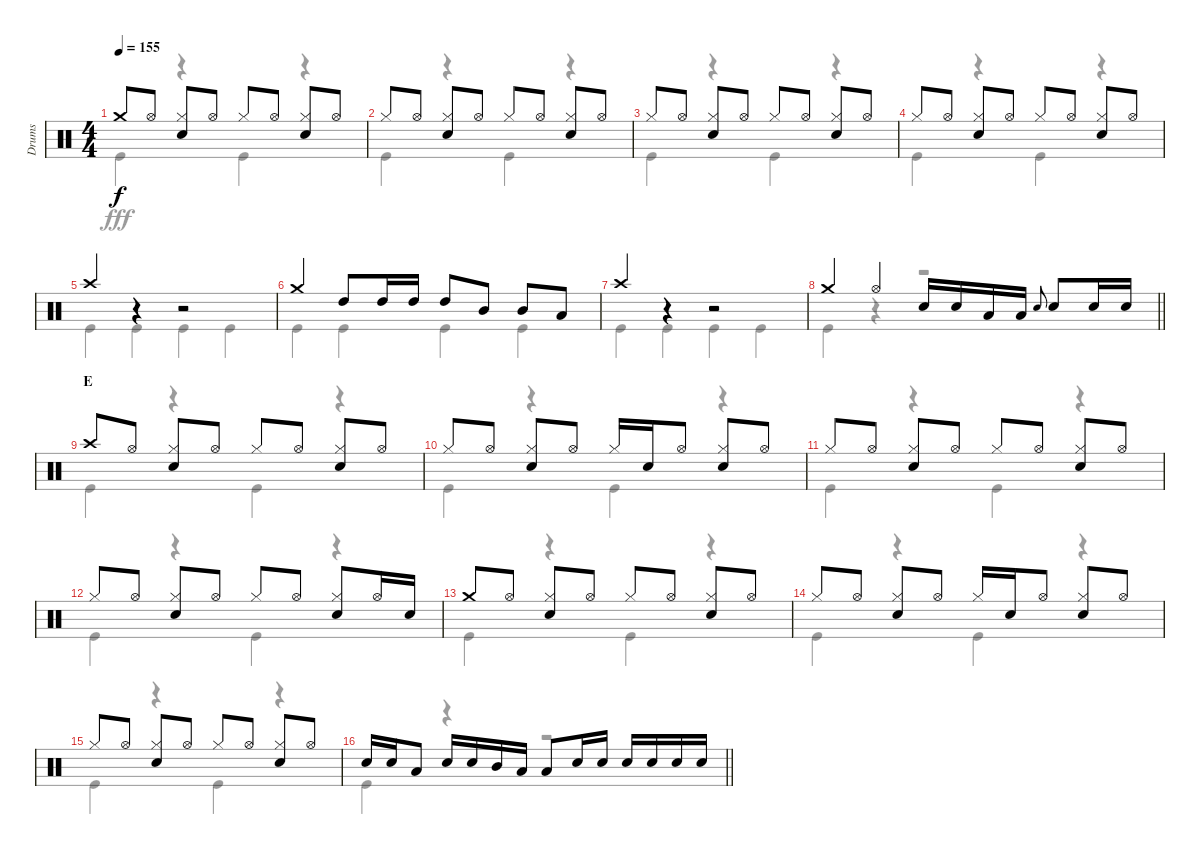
\track ("Drums" "Drums") {instrument percussion}
\staff {score}
\articulation defaults
\voice
\ts (4 4)
\tempo 155
\clef neutral
\ks c "Crash medium (hit)".8{dy f} "Hi-Hat (open)".8
("Hi-Hat (closed)" "Snare (hit) 2").8 "Hi-Hat (open)".8 "Hi-Hat (closed)".8 "Hi-Hat (open)".8 ("Hi-Hat (closed)" "Snare (hit) 2").8 "Hi-Hat (open)".8 |
"Hi-Hat (closed)".8 "Hi-Hat (open)".8 ("Hi-Hat (closed)" "Snare (hit) 2").8 "Hi-Hat (open)".8 "Hi-Hat (closed)".8 "Hi-Hat (open)".8 ("Hi-Hat (closed)" "Snare (hit) 2").8 "Hi-Hat (open)".8 |
"Hi-Hat (closed)".8 "Hi-Hat (open)".8 ("Hi-Hat (closed)" "Snare (hit) 2").8 "Hi-Hat (open)".8 "Hi-Hat (closed)".8 "Hi-Hat (open)".8 ("Hi-Hat (closed)" "Snare (hit) 2").8 "Hi-Hat (open)".8 |
"Hi-Hat (closed)".8 "Hi-Hat (open)".8 ("Hi-Hat (closed)" "Snare (hit) 2").8 "Hi-Hat (open)".8 "Hi-Hat (closed)".8 "Hi-Hat (open)".8 ("Hi-Hat (closed)" "Snare (hit) 2").8 "Hi-Hat (open)".8 |
"Crash high (hit)".4 r.4 r.2 |
"Crash medium (hit)".4 "High Tom (hit)".8 "High Tom (hit)".16 "High Tom (hit)".16 "High Tom (hit)".8 "Mid Tom (hit)".8 "Mid Tom (hit)".8 "Low Tom (hit)".8 |
"Crash high (hit)".4 r.4 r.2 |
\barLineRight lightlight "Crash medium (hit)".4 "Hi-Hat (open)".4 "Snare (hit) 2".16 "Snare (hit) 2".16 "Low Tom (hit)".16 "Low Tom (hit)".16 "Snare (hit) 2".8{gr onbeat} "Snare (hit) 2".8 "Snare (hit) 2".16 "Snare (hit) 2".16
|
\section ("" "E")
"Crash high (hit)".8 "Hi-Hat (open)".8 ("Hi-Hat (closed)" "Snare (hit) 2").8 "Hi-Hat (open)".8 "Hi-Hat (closed)".8 "Hi-Hat (open)".8 ("Hi-Hat (closed)" "Snare (hit) 2").8 "Hi-Hat (open)".8 |
"Hi-Hat (closed)".8 "Hi-Hat (open)".8 ("Hi-Hat (closed)" "Snare (hit) 2").8 "Hi-Hat (open)".8 "Hi-Hat (closed)".16 "Snare (hit) 2".16 "Hi-Hat (open)".8 ("Hi-Hat (closed)" "Snare (hit) 2").8 "Hi-Hat (open)".8 |
"Hi-Hat (closed)".8 "Hi-Hat (open)".8 ("Hi-Hat (closed)" "Snare (hit) 2").8 "Hi-Hat (open)".8 "Hi-Hat (closed)".8 "Hi-Hat (open)".8 ("Hi-Hat (closed)" "Snare (hit) 2").8 "Hi-Hat (open)".8 |
"Hi-Hat (closed)".8 "Hi-Hat (open)".8 ("Hi-Hat (closed)" "Snare (hit) 2").8 "Hi-Hat (open)".8 "Hi-Hat (closed)".8 "Hi-Hat (open)".8 ("Hi-Hat (closed)" "Snare (hit) 2").8 "Hi-Hat (open)".16 "Snare (hit) 2".16 |
"Crash medium (hit)".8 "Hi-Hat (open)".8 ("Hi-Hat (closed)" "Snare (hit) 2").8 "Hi-Hat (open)".8 "Hi-Hat (closed)".8 "Hi-Hat (open)".8 ("Hi-Hat (closed)" "Snare (hit) 2").8 "Hi-Hat (open)".8 |
"Hi-Hat (closed)".8 "Hi-Hat (open)".8 ("Hi-Hat (closed)" "Snare (hit) 2").8 "Hi-Hat (open)".8 "Hi-Hat (closed)".16 "Snare (hit) 2".16 "Hi-Hat (open)".8 ("Hi-Hat (closed)" "Snare (hit) 2").8 "Hi-Hat (open)".8 |
"Hi-Hat (closed)".8 "Hi-Hat (open)".8 ("Hi-Hat (closed)" "Snare (hit) 2").8 "Hi-Hat (open)".8 "Hi-Hat (closed)".8 "Hi-Hat (open)".8 ("Hi-Hat (closed)" "Snare (hit) 2").8 "Hi-Hat (open)".8 |
\barLineRight lightlight "Snare (hit) 2".16 "Snare (hit) 2".16 "Low Tom (hit)".8 "Snare (hit) 2".16 "Snare (hit) 2".16 "Mid Tom (hit)".16 "Low Tom (hit)".16 "Low Tom (hit)".8 "Snare (hit) 2".16 "Snare (hit) 2".16 "Snare (hit) 2".16 "Snare (hit) 2".16 "Snare (hit) 2".16 "Snare (hit) 2".16
\voice
\clef neutral
\ottava regular
\simile none
\ks c "Kick (hit)".4{dy fff}
r.4 "Kick (hit)".4 r.4 |
"Kick (hit)".4 r.4 "Kick (hit)".4 r.4 |
"Kick (hit)".4 r.4 "Kick (hit)".4 r.4 |
"Kick (hit)".4 r.4 "Kick (hit)".4 r.4 |
"Kick (hit)".4 "Kick (hit)".4 "Kick (hit)".4 "Kick (hit)".4 |
"Kick (hit)".4 "Kick (hit)".4 "Kick (hit)".4 "Kick (hit)".4 |
"Kick (hit)".4 "Kick (hit)".4 "Kick (hit)".4 "Kick (hit)".4 |
\barLineRight lightlight "Kick (hit)".4
r.4 r.2 |
"Kick (hit)".4 r.4 "Kick (hit)".4 r.4 |
"Kick (hit)".4 r.4 "Kick (hit)".4 r.4 |
"Kick (hit)".4 r.4 "Kick (hit)".4 r.4 |
"Kick (hit)".4 r.4 "Kick (hit)".4 r.4 |
"Kick (hit)".4 r.4 "Kick (hit)".4 r.4 |
"Kick (hit)".4 r.4 "Kick (hit)".4 r.4 |
"Kick (hit)".4 r.4 "Kick (hit)".4 r.4 |
\barLineRight lightlight "Kick (hit)".4
r.4 r.2
